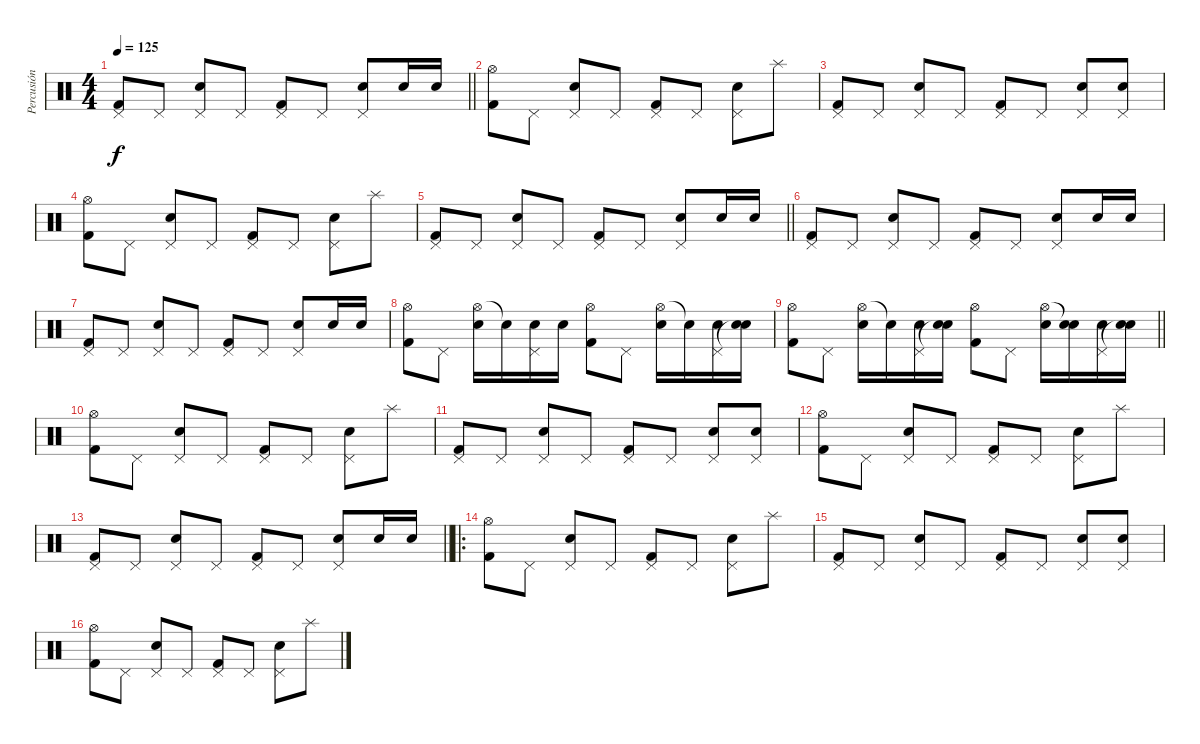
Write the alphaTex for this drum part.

\track ("Percusión" "Percusión") {instrument percussion}
\staff {score}
\articulation defaults
\ts (4 4)
\tempo 125
\clef neutral
\barLineRight lightlight
\ks c
("Pedal Hi-Hat (hit)" "Kick (hit) 2").8{dy f} "Pedal Hi-Hat (hit)".8 ("Pedal Hi-Hat (hit)" "Snare (hit) 2").8 "Pedal Hi-Hat (hit)".8 ("Pedal Hi-Hat (hit)" "Kick (hit) 2").8 "Pedal Hi-Hat (hit)".8 ("Pedal Hi-Hat (hit)" "Snare (hit) 2").8 "Snare (hit) 2".16 "Snare (hit) 2".16 |
("Hi-Hat (open)" "Kick (hit) 2").8 "Pedal Hi-Hat (hit)".8 ("Pedal Hi-Hat (hit)" "Snare (hit) 2").8 "Pedal Hi-Hat (hit)".8 ("Pedal Hi-Hat (hit)" "Kick (hit) 2").8 "Pedal Hi-Hat (hit)".8 ("Pedal Hi-Hat (hit)" "Snare (hit) 2").8 "Splash (hit)".8 |
("Pedal Hi-Hat (hit)" "Kick (hit) 2").8 "Pedal Hi-Hat (hit)".8 ("Pedal Hi-Hat (hit)" "Snare (hit) 2").8 "Pedal Hi-Hat (hit)".8 ("Pedal Hi-Hat (hit)" "Kick (hit) 2").8 "Pedal Hi-Hat (hit)".8 ("Pedal Hi-Hat (hit)" "Snare (hit) 2").8 ("Pedal Hi-Hat (hit)" "Snare (hit) 2").8 |
("Hi-Hat (open)" "Kick (hit) 2").8 "Pedal Hi-Hat (hit)".8 ("Pedal Hi-Hat (hit)" "Snare (hit) 2").8 "Pedal Hi-Hat (hit)".8 ("Pedal Hi-Hat (hit)" "Kick (hit) 2").8 "Pedal Hi-Hat (hit)".8 ("Pedal Hi-Hat (hit)" "Snare (hit) 2").8 "Splash (hit)".8 |
\barLineRight lightlight
("Pedal Hi-Hat (hit)" "Kick (hit) 2").8 "Pedal Hi-Hat (hit)".8 ("Pedal Hi-Hat (hit)" "Snare (hit) 2").8 "Pedal Hi-Hat (hit)".8 ("Pedal Hi-Hat (hit)" "Kick (hit) 2").8 "Pedal Hi-Hat (hit)".8 ("Pedal Hi-Hat (hit)" "Snare (hit) 2").8 "Snare (hit) 2".16 "Snare (hit) 2".16 |
("Pedal Hi-Hat (hit)" "Kick (hit) 2").8 "Pedal Hi-Hat (hit)".8 ("Pedal Hi-Hat (hit)" "Snare (hit) 2").8 "Pedal Hi-Hat (hit)".8 ("Pedal Hi-Hat (hit)" "Kick (hit) 2").8 "Pedal Hi-Hat (hit)".8 ("Pedal Hi-Hat (hit)" "Snare (hit) 2").8 "Snare (hit) 2".16 "Snare (hit) 2".16 |
("Pedal Hi-Hat (hit)" "Kick (hit) 2").8 "Pedal Hi-Hat (hit)".8 ("Pedal Hi-Hat (hit)" "Snare (hit) 2").8 "Pedal Hi-Hat (hit)".8 ("Pedal Hi-Hat (hit)" "Kick (hit) 2").8 "Pedal Hi-Hat (hit)".8 ("Pedal Hi-Hat (hit)" "Snare (hit) 2").8 "Snare (hit) 2".16 "Snare (hit) 2".16 |
("Hi-Hat (open)" "Kick (hit) 2").8 "Pedal Hi-Hat (hit)".8 ("Hi-Hat (open)" "Snare (hit) 2").16 "Snare (hit)"{t}.16 ("Pedal Hi-Hat (hit)" "Snare (hit) 2").16 "Snare (hit) 2".16 ("Hi-Hat (open)" "Kick (hit) 2").8 "Pedal Hi-Hat (hit)".8 ("Hi-Hat (open)" "Snare (hit) 2").16 "Snare (hit)"{t}.16 ("Pedal Hi-Hat (hit)" "Snare (hit) 2").16 ("Snare (hit)"{t} "Snare (hit) 2").16 |
\barLineRight lightlight
("Hi-Hat (open)" "Kick (hit) 2").8 "Pedal Hi-Hat (hit)".8 ("Hi-Hat (open)" "Snare (hit) 2").16 "Snare (hit)"{t}.16 ("Pedal Hi-Hat (hit)" "Snare (hit) 2").16 ("Snare (hit)"{t} "Snare (hit) 2").16 ("Hi-Hat (open)" "Kick (hit) 2").8 "Pedal Hi-Hat (hit)".8 ("Hi-Hat (open)" "Snare (hit) 2").16 ("Snare (hit)"{t} "Snare (hit) 2").16 ("Pedal Hi-Hat (hit)" "Snare (hit) 2").16 ("Snare (hit)"{t} "Snare (hit) 2").16 |
("Hi-Hat (open)" "Kick (hit) 2").8 "Pedal Hi-Hat (hit)".8 ("Pedal Hi-Hat (hit)" "Snare (hit) 2").8 "Pedal Hi-Hat (hit)".8 ("Pedal Hi-Hat (hit)" "Kick (hit) 2").8 "Pedal Hi-Hat (hit)".8 ("Pedal Hi-Hat (hit)" "Snare (hit) 2").8 "Splash (hit)".8 |
("Pedal Hi-Hat (hit)" "Kick (hit) 2").8 "Pedal Hi-Hat (hit)".8 ("Pedal Hi-Hat (hit)" "Snare (hit) 2").8 "Pedal Hi-Hat (hit)".8 ("Pedal Hi-Hat (hit)" "Kick (hit) 2").8 "Pedal Hi-Hat (hit)".8 ("Pedal Hi-Hat (hit)" "Snare (hit) 2").8 ("Pedal Hi-Hat (hit)" "Snare (hit) 2").8 |
("Hi-Hat (open)" "Kick (hit) 2").8 "Pedal Hi-Hat (hit)".8 ("Pedal Hi-Hat (hit)" "Snare (hit) 2").8 "Pedal Hi-Hat (hit)".8 ("Pedal Hi-Hat (hit)" "Kick (hit) 2").8 "Pedal Hi-Hat (hit)".8 ("Pedal Hi-Hat (hit)" "Snare (hit) 2").8 "Splash (hit)".8 |
\barLineRight lightlight
("Pedal Hi-Hat (hit)" "Kick (hit) 2").8 "Pedal Hi-Hat (hit)".8 ("Pedal Hi-Hat (hit)" "Snare (hit) 2").8 "Pedal Hi-Hat (hit)".8 ("Pedal Hi-Hat (hit)" "Kick (hit) 2").8 "Pedal Hi-Hat (hit)".8 ("Pedal Hi-Hat (hit)" "Snare (hit) 2").8 "Snare (hit) 2".16 "Snare (hit) 2".16 |
\ro
("Hi-Hat (open)" "Kick (hit) 2").8 "Pedal Hi-Hat (hit)".8 ("Pedal Hi-Hat (hit)" "Snare (hit) 2").8 "Pedal Hi-Hat (hit)".8 ("Pedal Hi-Hat (hit)" "Kick (hit) 2").8 "Pedal Hi-Hat (hit)".8 ("Pedal Hi-Hat (hit)" "Snare (hit) 2").8 "Splash (hit)".8 |
("Pedal Hi-Hat (hit)" "Kick (hit) 2").8 "Pedal Hi-Hat (hit)".8 ("Pedal Hi-Hat (hit)" "Snare (hit) 2").8 "Pedal Hi-Hat (hit)".8 ("Pedal Hi-Hat (hit)" "Kick (hit) 2").8 "Pedal Hi-Hat (hit)".8 ("Pedal Hi-Hat (hit)" "Snare (hit) 2").8 ("Pedal Hi-Hat (hit)" "Snare (hit) 2").8 |
("Hi-Hat (open)" "Kick (hit) 2").8 "Pedal Hi-Hat (hit)".8 ("Pedal Hi-Hat (hit)" "Snare (hit) 2").8 "Pedal Hi-Hat (hit)".8 ("Pedal Hi-Hat (hit)" "Kick (hit) 2").8 "Pedal Hi-Hat (hit)".8 ("Pedal Hi-Hat (hit)" "Snare (hit) 2").8 "Splash (hit)".8
